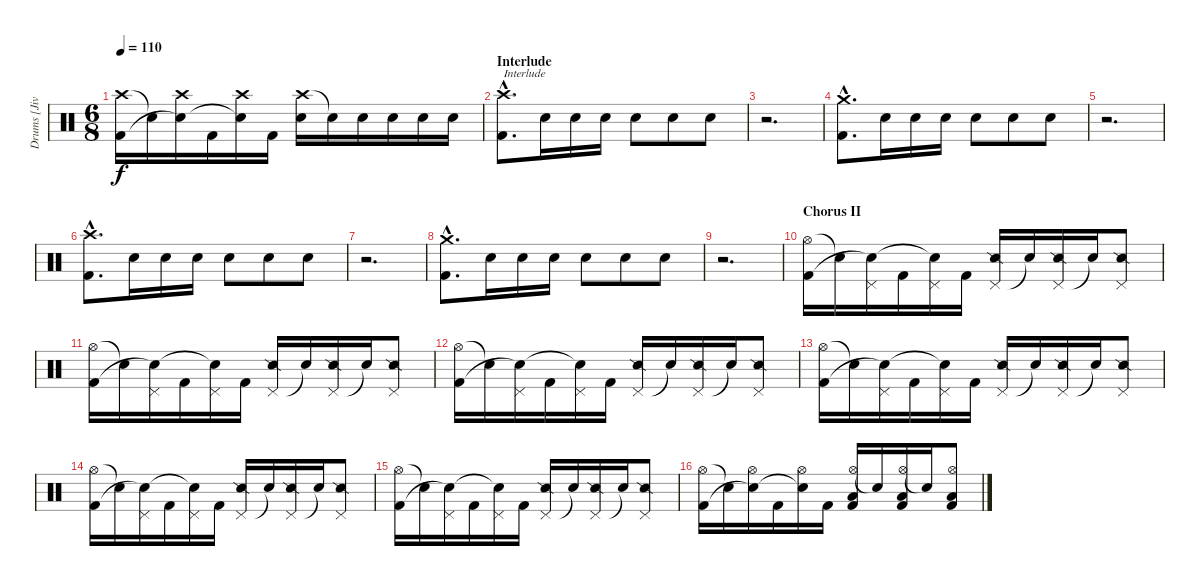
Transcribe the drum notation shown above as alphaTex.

\track ("Drums [Jivarp]" "Drums [Jiv") {instrument percussion}
\staff {score}
\articulation defaults
\ts (6 8)
\tempo 110
\clef neutral
\ks c
("Crash high (hit)" "Kick (hit) 2").16{dy f} "Snare (hit)"{t}.16 ("Crash high (hit)" "Snare (hit)"{t}).16 "Kick (hit) 2".16 ("Crash high (hit)" "Snare (hit)"{t}).16 "Kick (hit) 2".16 ("Crash high (hit)" "Electric Snare (hit)").16 "Snare (hit)"{t}.16 "Electric Snare (hit)".16 "Electric Snare (hit)".16 "Electric Snare (hit)".16 "Electric Snare (hit)".16 |
\section ("" "Interlude")
("Crash high (hit)"{hac} "Kick (hit) 2"{hac}).8{d txt "Interlude"} "Electric Snare (hit)".16 "Electric Snare (hit)".16 "Electric Snare (hit)".16 "Electric Snare (hit)".8 "Electric Snare (hit)".8 "Electric Snare (hit)".8 |
r.2{d} |
("Crash medium (hit)"{hac} "Kick (hit) 2"{hac}).8{d} "Electric Snare (hit)".16 "Electric Snare (hit)".16 "Electric Snare (hit)".16 "Electric Snare (hit)".8 "Electric Snare (hit)".8 "Electric Snare (hit)".8 |
r.2{d} |
("Crash high (hit)"{hac} "Kick (hit) 2"{hac}).8{d} "Electric Snare (hit)".16 "Electric Snare (hit)".16 "Electric Snare (hit)".16 "Electric Snare (hit)".8 "Electric Snare (hit)".8 "Electric Snare (hit)".8 |
r.2{d} |
("Crash medium (hit)"{hac} "Kick (hit) 2"{hac}).8{d} "Electric Snare (hit)".16 "Electric Snare (hit)".16 "Electric Snare (hit)".16 "Electric Snare (hit)".8 "Electric Snare (hit)".8 "Electric Snare (hit)".8 |
r.2{d} |
\section ("" "Chorus II")
("Hi-Hat (open)" "Kick (hit) 2").16 "Snare (hit)"{t}.16 ("Pedal Hi-Hat (hit)" "Snare (hit)"{t}).16 "Kick (hit) 2".16 ("Pedal Hi-Hat (hit)" "Snare (hit)"{t}).16 "Kick (hit) 2".16 ("Pedal Hi-Hat (hit)" "Snare (side stick) 2").16 "Snare (hit)"{t}.16 ("Pedal Hi-Hat (hit)" "Snare (side stick) 2").16 "Snare (hit)"{t}.16 ("Pedal Hi-Hat (hit)" "Snare (side stick) 2").8 |
("Hi-Hat (open)" "Kick (hit) 2").16 "Snare (hit)"{t}.16 ("Pedal Hi-Hat (hit)" "Snare (hit)"{t}).16 "Kick (hit) 2".16 ("Pedal Hi-Hat (hit)" "Snare (hit)"{t}).16 "Kick (hit) 2".16 ("Pedal Hi-Hat (hit)" "Snare (side stick) 2").16 "Snare (hit)"{t}.16 ("Pedal Hi-Hat (hit)" "Snare (side stick) 2").16 "Snare (hit)"{t}.16 ("Pedal Hi-Hat (hit)" "Snare (side stick) 2").8 |
("Hi-Hat (open)" "Kick (hit) 2").16 "Snare (hit)"{t}.16 ("Pedal Hi-Hat (hit)" "Snare (hit)"{t}).16 "Kick (hit) 2".16 ("Pedal Hi-Hat (hit)" "Snare (hit)"{t}).16 "Kick (hit) 2".16 ("Pedal Hi-Hat (hit)" "Snare (side stick) 2").16 "Snare (hit)"{t}.16 ("Pedal Hi-Hat (hit)" "Snare (side stick) 2").16 "Snare (hit)"{t}.16 ("Pedal Hi-Hat (hit)" "Snare (side stick) 2").8 |
("Hi-Hat (open)" "Kick (hit) 2").16 "Snare (hit)"{t}.16 ("Pedal Hi-Hat (hit)" "Snare (hit)"{t}).16 "Kick (hit) 2".16 ("Pedal Hi-Hat (hit)" "Snare (hit)"{t}).16 "Kick (hit) 2".16 ("Pedal Hi-Hat (hit)" "Snare (side stick) 2").16 "Snare (hit)"{t}.16 ("Pedal Hi-Hat (hit)" "Snare (side stick) 2").16 "Snare (hit)"{t}.16 ("Pedal Hi-Hat (hit)" "Snare (side stick) 2").8 |
("Hi-Hat (open)" "Kick (hit) 2").16 "Snare (hit)"{t}.16 ("Pedal Hi-Hat (hit)" "Snare (hit)"{t}).16 "Kick (hit) 2".16 ("Pedal Hi-Hat (hit)" "Snare (hit)"{t}).16 "Kick (hit) 2".16 ("Pedal Hi-Hat (hit)" "Snare (side stick) 2").16 "Snare (hit)"{t}.16 ("Pedal Hi-Hat (hit)" "Snare (side stick) 2").16 "Snare (hit)"{t}.16 ("Pedal Hi-Hat (hit)" "Snare (side stick) 2").8 |
("Hi-Hat (open)" "Kick (hit) 2").16 "Snare (hit)"{t}.16 ("Pedal Hi-Hat (hit)" "Snare (hit)"{t}).16 "Kick (hit) 2".16 ("Pedal Hi-Hat (hit)" "Snare (hit)"{t}).16 "Kick (hit) 2".16 ("Pedal Hi-Hat (hit)" "Snare (side stick) 2").16 "Snare (hit)"{t}.16 ("Pedal Hi-Hat (hit)" "Snare (side stick) 2").16 "Snare (hit)"{t}.16 ("Pedal Hi-Hat (hit)" "Snare (side stick) 2").8 |
("Hi-Hat (open)" "Kick (hit) 2").16 "Snare (hit)"{t}.16 ("Hi-Hat (open)" "Snare (hit)"{t}).16 "Kick (hit) 2".16 ("Hi-Hat (open)" "Snare (hit)"{t}).16 "Kick (hit) 2".16 ("Hi-Hat (open)" "Low Tom (hit)" "Kick (hit) 2").16 "Snare (hit)"{t}.16 ("Hi-Hat (open)" "Low Tom (hit)" "Kick (hit) 2").16 "Snare (hit)"{t}.16 ("Hi-Hat (open)" "Low Tom (hit)" "Kick (hit) 2").8
